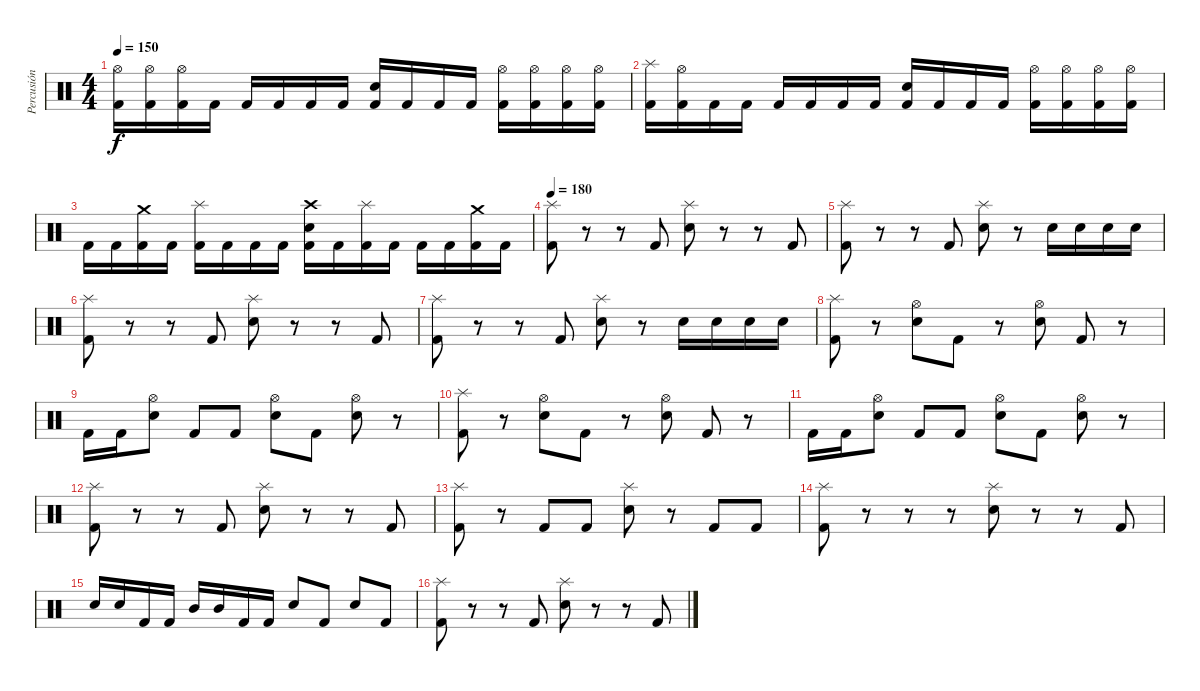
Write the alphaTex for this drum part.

\track ("Percusión" "Percusión") {instrument percussion}
\staff {score}
\articulation defaults
\ts (4 4)
\tempo 150
\clef neutral
\ks c
("Hi-Hat (open)" "Kick (hit) 2").16{dy f} ("Hi-Hat (open)" "Kick (hit) 2").16 ("Hi-Hat (open)" "Kick (hit) 2").16 "Kick (hit) 2".16 "Kick (hit) 2".16 "Kick (hit) 2".16 "Kick (hit) 2".16 "Kick (hit) 2".16 ("Snare (hit) 2" "Kick (hit) 2").16 "Kick (hit) 2".16 "Kick (hit) 2".16 "Kick (hit) 2".16 ("Hi-Hat (open)" "Kick (hit) 2").16 ("Hi-Hat (open)" "Kick (hit) 2").16 ("Hi-Hat (open)" "Kick (hit) 2").16 ("Hi-Hat (open)" "Kick (hit) 2").16 |
("Splash (hit)" "Kick (hit) 2").16 ("Hi-Hat (open)" "Kick (hit) 2").16 "Kick (hit) 2".16 "Kick (hit) 2".16 "Kick (hit) 2".16 "Kick (hit) 2".16 "Kick (hit) 2".16 "Kick (hit) 2".16 ("Snare (hit) 2" "Kick (hit) 2").16 "Kick (hit) 2".16 "Kick (hit) 2".16 "Kick (hit) 2".16 ("Hi-Hat (open)" "Kick (hit) 2").16 ("Hi-Hat (open)" "Kick (hit) 2").16 ("Hi-Hat (open)" "Kick (hit) 2").16 ("Hi-Hat (open)" "Kick (hit) 2").16 |
"Kick (hit) 2".16 "Kick (hit) 2".16 ("Crash medium (hit)" "Kick (hit) 2").16 "Kick (hit) 2".16 ("Splash (hit)" "Kick (hit) 2").16 "Kick (hit) 2".16 "Kick (hit) 2".16 "Kick (hit) 2".16 ("Crash high (hit)" "Snare (hit) 2" "Kick (hit) 2").16 "Kick (hit) 2".16 ("Splash (hit)" "Kick (hit) 2").16 "Kick (hit) 2".16 "Kick (hit) 2".16 "Kick (hit) 2".16 ("Crash medium (hit)" "Kick (hit) 2").16 "Kick (hit) 2".16 |
\tempo 180
("Splash (hit)" "Kick (hit) 2").8 r.8 r.8 "Kick (hit) 2".8 ("Splash (hit)" "Snare (hit) 2").8 r.8 r.8 "Kick (hit) 2".8 |
("Splash (hit)" "Kick (hit) 2").8 r.8 r.8 "Kick (hit) 2".8 ("Splash (hit)" "Snare (hit) 2").8 r.8 "Snare (hit) 2".16 "Snare (hit) 2".16 "Snare (hit) 2".16 "Snare (hit) 2".16 |
("Splash (hit)" "Kick (hit) 2").8 r.8 r.8 "Kick (hit) 2".8 ("Splash (hit)" "Snare (hit) 2").8 r.8 r.8 "Kick (hit) 2".8 |
("Splash (hit)" "Kick (hit) 2").8 r.8 r.8 "Kick (hit) 2".8 ("Splash (hit)" "Snare (hit) 2").8 r.8 "Snare (hit) 2".16 "Snare (hit) 2".16 "Snare (hit) 2".16 "Snare (hit) 2".16 |
("Splash (hit)" "Kick (hit) 2").8 r.8 ("Hi-Hat (open)" "Snare (hit) 2").8 "Kick (hit) 2".8 r.8 ("Hi-Hat (open)" "Snare (hit) 2").8 "Kick (hit) 2".8 r.8 |
"Kick (hit) 2".16 "Kick (hit) 2".16 ("Hi-Hat (open)" "Snare (hit) 2").8 "Kick (hit) 2".8 "Kick (hit) 2".8 ("Hi-Hat (open)" "Snare (hit) 2").8 "Kick (hit) 2".8 ("Hi-Hat (open)" "Snare (hit) 2").8 r.8 |
("Splash (hit)" "Kick (hit) 2").8 r.8 ("Hi-Hat (open)" "Snare (hit) 2").8 "Kick (hit) 2".8 r.8 ("Hi-Hat (open)" "Snare (hit) 2").8 "Kick (hit) 2".8 r.8 |
"Kick (hit) 2".16 "Kick (hit) 2".16 ("Hi-Hat (open)" "Snare (hit) 2").8 "Kick (hit) 2".8 "Kick (hit) 2".8 ("Hi-Hat (open)" "Snare (hit) 2").8 "Kick (hit) 2".8 ("Hi-Hat (open)" "Snare (hit) 2").8 r.8 |
("Splash (hit)" "Kick (hit) 2").8 r.8 r.8 "Kick (hit) 2".8 ("Splash (hit)" "Snare (hit) 2").8 r.8 r.8 "Kick (hit) 2".8 |
("Splash (hit)" "Kick (hit) 2").8 r.8 "Kick (hit) 2".8 "Kick (hit) 2".8 ("Splash (hit)" "Snare (hit) 2").8 r.8 "Kick (hit) 2".8 "Kick (hit) 2".8 |
("Splash (hit)" "Kick (hit) 2").8 r.8 r.8 r.8 ("Splash (hit)" "Snare (hit) 2").8 r.8 r.8 "Kick (hit) 2".8 |
"Snare (hit) 2".16 "Snare (hit) 2".16 "Kick (hit) 2".16 "Kick (hit) 2".16 "Mid Tom (hit)".16 "Mid Tom (hit)".16 "Kick (hit) 2".16 "Kick (hit) 2".16 "Snare (hit) 2".8 "Kick (hit) 2".8 "Snare (hit) 2".8 "Kick (hit) 2".8 |
("Splash (hit)" "Kick (hit) 2").8 r.8 r.8 "Kick (hit) 2".8 ("Splash (hit)" "Snare (hit) 2").8 r.8 r.8 "Kick (hit) 2".8
